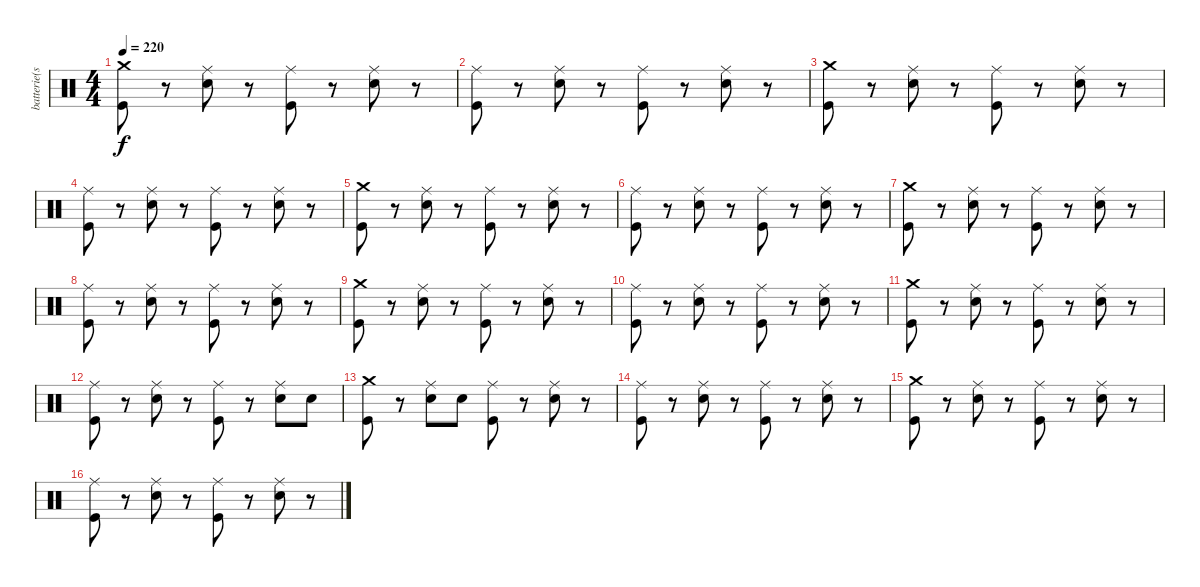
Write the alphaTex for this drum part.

\track ("batterie(scott)" "batterie(s") {instrument percussion}
\staff {score}
\articulation defaults
\ts (4 4)
\tempo 220
\clef neutral
\ks c
("Crash medium (hit)" "Kick (hit)").8{dy f} r.8 ("Ride (middle)" "Snare (hit) 2").8 r.8 ("Ride (middle)" "Kick (hit)").8 r.8 ("Ride (middle)" "Snare (hit) 2").8 r.8 |
("Ride (middle)" "Kick (hit)").8 r.8 ("Ride (middle)" "Snare (hit) 2").8 r.8 ("Ride (middle)" "Kick (hit)").8 r.8 ("Ride (middle)" "Snare (hit) 2").8 r.8 |
("Crash medium (hit)" "Kick (hit)").8 r.8 ("Ride (middle)" "Snare (hit) 2").8 r.8 ("Ride (middle)" "Kick (hit)").8 r.8 ("Ride (middle)" "Snare (hit) 2").8 r.8 |
("Ride (middle)" "Kick (hit)").8 r.8 ("Ride (middle)" "Snare (hit) 2").8 r.8 ("Ride (middle)" "Kick (hit)").8 r.8 ("Ride (middle)" "Snare (hit) 2").8 r.8 |
("Crash medium (hit)" "Kick (hit)").8 r.8 ("Ride (middle)" "Snare (hit) 2").8 r.8 ("Ride (middle)" "Kick (hit)").8 r.8 ("Ride (middle)" "Snare (hit) 2").8 r.8 |
("Ride (middle)" "Kick (hit)").8 r.8 ("Ride (middle)" "Snare (hit) 2").8 r.8 ("Ride (middle)" "Kick (hit)").8 r.8 ("Ride (middle)" "Snare (hit) 2").8 r.8 |
("Crash medium (hit)" "Kick (hit)").8 r.8 ("Ride (middle)" "Snare (hit) 2").8 r.8 ("Ride (middle)" "Kick (hit)").8 r.8 ("Ride (middle)" "Snare (hit) 2").8 r.8 |
("Ride (middle)" "Kick (hit)").8 r.8 ("Ride (middle)" "Snare (hit) 2").8 r.8 ("Ride (middle)" "Kick (hit)").8 r.8 ("Ride (middle)" "Snare (hit) 2").8 r.8 |
("Crash medium (hit)" "Kick (hit)").8 r.8 ("Ride (middle)" "Snare (hit) 2").8 r.8 ("Ride (middle)" "Kick (hit)").8 r.8 ("Ride (middle)" "Snare (hit) 2").8 r.8 |
("Ride (middle)" "Kick (hit)").8 r.8 ("Ride (middle)" "Snare (hit) 2").8 r.8 ("Ride (middle)" "Kick (hit)").8 r.8 ("Ride (middle)" "Snare (hit) 2").8 r.8 |
("Crash medium (hit)" "Kick (hit)").8 r.8 ("Ride (middle)" "Snare (hit) 2").8 r.8 ("Ride (middle)" "Kick (hit)").8 r.8 ("Ride (middle)" "Snare (hit) 2").8 r.8 |
("Ride (middle)" "Kick (hit)").8 r.8 ("Ride (middle)" "Snare (hit) 2").8 r.8 ("Ride (middle)" "Kick (hit)").8 r.8 ("Ride (middle)" "Snare (hit) 2").8 "Snare (hit) 2".8 |
("Crash medium (hit)" "Kick (hit)").8 r.8 ("Ride (middle)" "Snare (hit) 2").8 "Snare (hit) 2".8 ("Ride (middle)" "Kick (hit)").8 r.8 ("Ride (middle)" "Snare (hit) 2").8 r.8 |
("Ride (middle)" "Kick (hit)").8 r.8 ("Ride (middle)" "Snare (hit) 2").8 r.8 ("Ride (middle)" "Kick (hit)").8 r.8 ("Ride (middle)" "Snare (hit) 2").8 r.8 |
("Crash medium (hit)" "Kick (hit)").8 r.8 ("Ride (middle)" "Snare (hit) 2").8 r.8 ("Ride (middle)" "Kick (hit)").8 r.8 ("Ride (middle)" "Snare (hit) 2").8 r.8 |
("Ride (middle)" "Kick (hit)").8 r.8 ("Ride (middle)" "Snare (hit) 2").8 r.8 ("Ride (middle)" "Kick (hit)").8 r.8 ("Ride (middle)" "Snare (hit) 2").8 r.8
